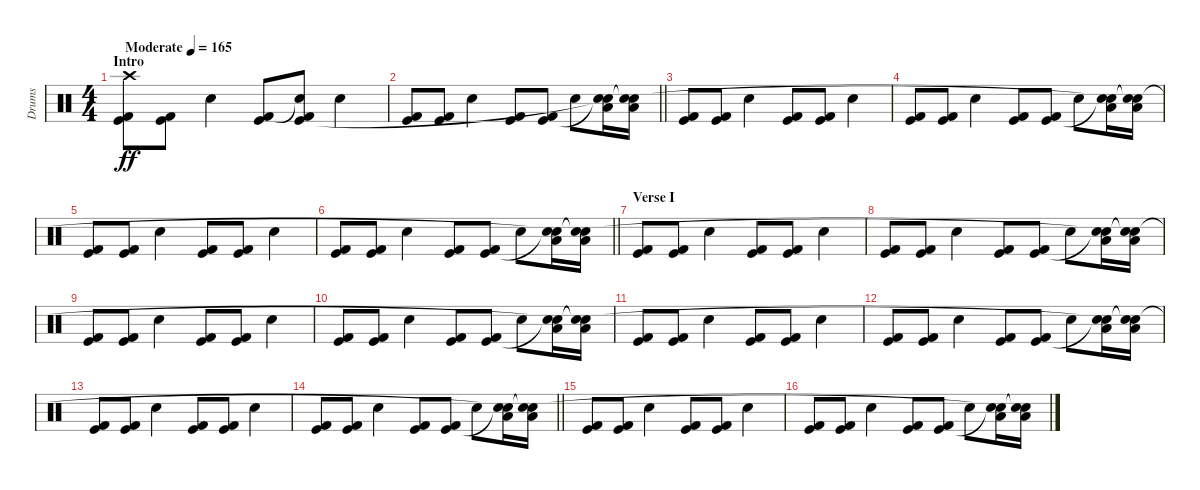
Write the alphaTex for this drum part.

\track ("Drums" "Drums") {instrument percussion}
\staff
\articulation defaults
\ts (4 4)
\section ("" "Intro")
\tempo (165 "Moderate")
\clef neutral
\ks c
("Crash high (hit)" "Kick (hit) 2" "Kick (hit)").8{dy ff} ("Kick (hit) 2" "Kick (hit)").8 "Electric Snare (hit)".4 ("Kick (hit) 2" "Kick (hit)").8 ("Snare (hit)"{t} "Kick (hit) 2" "Kick (hit)").8 "Electric Snare (hit)".4 |
\barLineRight lightlight
("Kick (hit) 2" "Kick (hit)").8 ("Kick (hit) 2" "Kick (hit)").8 "Electric Snare (hit)".4 ("Kick (hit) 2" "Kick (hit)").8 ("Kick (hit) 2" "Kick (hit)").8 "Electric Snare (hit)".8 ("Low Tom (hit)" "Snare (hit)"{t} "Snare (hit)"{t}).16 ("Low Floor Tom (hit)" "Snare (hit)"{t} "Snare (hit)"{t}).16 |
("Kick (hit) 2" "Kick (hit)").8 ("Kick (hit) 2" "Kick (hit)").8 "Electric Snare (hit)".4 ("Kick (hit) 2" "Kick (hit)").8 ("Kick (hit) 2" "Kick (hit)").8 "Electric Snare (hit)".4 |
("Kick (hit) 2" "Kick (hit)").8 ("Kick (hit) 2" "Kick (hit)").8 "Electric Snare (hit)".4 ("Kick (hit) 2" "Kick (hit)").8 ("Kick (hit) 2" "Kick (hit)").8 "Electric Snare (hit)".8 ("Low Tom (hit)" "Snare (hit)"{t} "Snare (hit)"{t}).16 ("Low Floor Tom (hit)" "Snare (hit)"{t} "Snare (hit)"{t}).16 |
("Kick (hit) 2" "Kick (hit)").8 ("Kick (hit) 2" "Kick (hit)").8 "Electric Snare (hit)".4 ("Kick (hit) 2" "Kick (hit)").8 ("Kick (hit) 2" "Kick (hit)").8 "Electric Snare (hit)".4 |
\barLineRight lightlight
("Kick (hit) 2" "Kick (hit)").8 ("Kick (hit) 2" "Kick (hit)").8 "Electric Snare (hit)".4 ("Kick (hit) 2" "Kick (hit)").8 ("Kick (hit) 2" "Kick (hit)").8 "Electric Snare (hit)".8 ("Low Tom (hit)" "Snare (hit)"{t} "Snare (hit)"{t}).16 ("Low Floor Tom (hit)" "Snare (hit)"{t} "Snare (hit)"{t}).16 |
\section ("" "Verse I")
("Kick (hit) 2" "Kick (hit)").8 ("Kick (hit) 2" "Kick (hit)").8 "Electric Snare (hit)".4 ("Kick (hit) 2" "Kick (hit)").8 ("Kick (hit) 2" "Kick (hit)").8 "Electric Snare (hit)".4 |
("Kick (hit) 2" "Kick (hit)").8 ("Kick (hit) 2" "Kick (hit)").8 "Electric Snare (hit)".4 ("Kick (hit) 2" "Kick (hit)").8 ("Kick (hit) 2" "Kick (hit)").8 "Electric Snare (hit)".8 ("Low Tom (hit)" "Snare (hit)"{t} "Snare (hit)"{t}).16 ("Low Floor Tom (hit)" "Snare (hit)"{t} "Snare (hit)"{t}).16 |
("Kick (hit) 2" "Kick (hit)").8 ("Kick (hit) 2" "Kick (hit)").8 "Electric Snare (hit)".4 ("Kick (hit) 2" "Kick (hit)").8 ("Kick (hit) 2" "Kick (hit)").8 "Electric Snare (hit)".4 |
("Kick (hit) 2" "Kick (hit)").8 ("Kick (hit) 2" "Kick (hit)").8 "Electric Snare (hit)".4 ("Kick (hit) 2" "Kick (hit)").8 ("Kick (hit) 2" "Kick (hit)").8 "Electric Snare (hit)".8 ("Low Tom (hit)" "Snare (hit)"{t} "Snare (hit)"{t}).16 ("Low Floor Tom (hit)" "Snare (hit)"{t} "Snare (hit)"{t}).16 |
("Kick (hit) 2" "Kick (hit)").8 ("Kick (hit) 2" "Kick (hit)").8 "Electric Snare (hit)".4 ("Kick (hit) 2" "Kick (hit)").8 ("Kick (hit) 2" "Kick (hit)").8 "Electric Snare (hit)".4 |
("Kick (hit) 2" "Kick (hit)").8 ("Kick (hit) 2" "Kick (hit)").8 "Electric Snare (hit)".4 ("Kick (hit) 2" "Kick (hit)").8 ("Kick (hit) 2" "Kick (hit)").8 "Electric Snare (hit)".8 ("Low Tom (hit)" "Snare (hit)"{t} "Snare (hit)"{t}).16 ("Low Floor Tom (hit)" "Snare (hit)"{t} "Snare (hit)"{t}).16 |
("Kick (hit) 2" "Kick (hit)").8 ("Kick (hit) 2" "Kick (hit)").8 "Electric Snare (hit)".4 ("Kick (hit) 2" "Kick (hit)").8 ("Kick (hit) 2" "Kick (hit)").8 "Electric Snare (hit)".4 |
\barLineRight lightlight
("Kick (hit) 2" "Kick (hit)").8 ("Kick (hit) 2" "Kick (hit)").8 "Electric Snare (hit)".4 ("Kick (hit) 2" "Kick (hit)").8 ("Kick (hit) 2" "Kick (hit)").8 "Electric Snare (hit)".8 ("Low Tom (hit)" "Snare (hit)"{t} "Snare (hit)"{t}).16 ("Low Floor Tom (hit)" "Snare (hit)"{t} "Snare (hit)"{t}).16 |
("Kick (hit) 2" "Kick (hit)").8 ("Kick (hit) 2" "Kick (hit)").8 "Electric Snare (hit)".4 ("Kick (hit) 2" "Kick (hit)").8 ("Kick (hit) 2" "Kick (hit)").8 "Electric Snare (hit)".4 |
("Kick (hit) 2" "Kick (hit)").8 ("Kick (hit) 2" "Kick (hit)").8 "Electric Snare (hit)".4 ("Kick (hit) 2" "Kick (hit)").8 ("Kick (hit) 2" "Kick (hit)").8 "Electric Snare (hit)".8 ("Low Tom (hit)" "Snare (hit)"{t} "Snare (hit)"{t}).16 ("Low Floor Tom (hit)" "Snare (hit)"{t} "Snare (hit)"{t}).16
